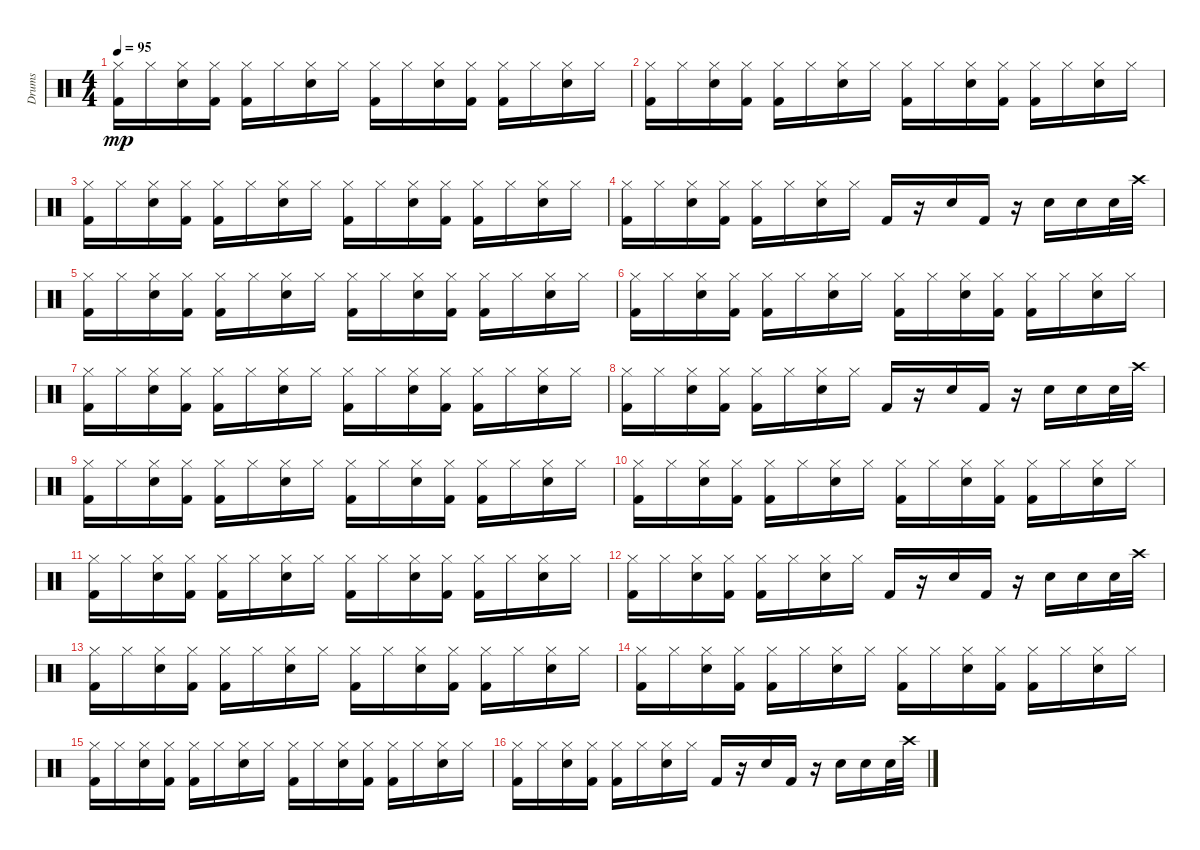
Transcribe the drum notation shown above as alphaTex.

\track ("Drums" "Drums") {instrument percussion}
\staff {score}
\articulation defaults
\ts (4 4)
\tempo 95
\clef neutral
\ks c
("Kick (hit) 2" "Hi-Hat (closed)").16{dy mp} "Hi-Hat (closed)".16 ("Snare (hit) 2" "Hi-Hat (closed)").16 ("Kick (hit) 2" "Hi-Hat (closed)").16 ("Kick (hit) 2" "Hi-Hat (closed)").16 "Hi-Hat (closed)".16 ("Snare (hit) 2" "Hi-Hat (closed)").16 "Hi-Hat (closed)".16 ("Kick (hit) 2" "Hi-Hat (closed)").16 "Hi-Hat (closed)".16 ("Snare (hit) 2" "Hi-Hat (closed)").16 ("Kick (hit) 2" "Hi-Hat (closed)").16 ("Kick (hit) 2" "Hi-Hat (closed)").16 "Hi-Hat (closed)".16 ("Snare (hit) 2" "Hi-Hat (closed)").16 "Hi-Hat (closed)".16 |
("Kick (hit) 2" "Hi-Hat (closed)").16 "Hi-Hat (closed)".16 ("Snare (hit) 2" "Hi-Hat (closed)").16 ("Kick (hit) 2" "Hi-Hat (closed)").16 ("Kick (hit) 2" "Hi-Hat (closed)").16 "Hi-Hat (closed)".16 ("Snare (hit) 2" "Hi-Hat (closed)").16 "Hi-Hat (closed)".16 ("Kick (hit) 2" "Hi-Hat (closed)").16 "Hi-Hat (closed)".16 ("Snare (hit) 2" "Hi-Hat (closed)").16 ("Kick (hit) 2" "Hi-Hat (closed)").16 ("Kick (hit) 2" "Hi-Hat (closed)").16 "Hi-Hat (closed)".16 ("Snare (hit) 2" "Hi-Hat (closed)").16 "Hi-Hat (closed)".16 |
("Kick (hit) 2" "Hi-Hat (closed)").16 "Hi-Hat (closed)".16 ("Snare (hit) 2" "Hi-Hat (closed)").16 ("Kick (hit) 2" "Hi-Hat (closed)").16 ("Kick (hit) 2" "Hi-Hat (closed)").16 "Hi-Hat (closed)".16 ("Snare (hit) 2" "Hi-Hat (closed)").16 "Hi-Hat (closed)".16 ("Kick (hit) 2" "Hi-Hat (closed)").16 "Hi-Hat (closed)".16 ("Snare (hit) 2" "Hi-Hat (closed)").16 ("Kick (hit) 2" "Hi-Hat (closed)").16 ("Kick (hit) 2" "Hi-Hat (closed)").16 "Hi-Hat (closed)".16 ("Snare (hit) 2" "Hi-Hat (closed)").16 "Hi-Hat (closed)".16 |
("Kick (hit) 2" "Hi-Hat (closed)").16 "Hi-Hat (closed)".16 ("Snare (hit) 2" "Hi-Hat (closed)").16 ("Kick (hit) 2" "Hi-Hat (closed)").16 ("Kick (hit) 2" "Hi-Hat (closed)").16 "Hi-Hat (closed)".16 ("Snare (hit) 2" "Hi-Hat (closed)").16 "Hi-Hat (closed)".16 "Kick (hit) 2".16 r.16 "Snare (hit) 2".16 "Kick (hit) 2".16 r.16 "Snare (hit) 2".16 "Snare (hit) 2".16 "Snare (hit) 2".32 "Crash high (hit)".32 |
("Kick (hit) 2" "Hi-Hat (closed)").16 "Hi-Hat (closed)".16 ("Snare (hit) 2" "Hi-Hat (closed)").16 ("Kick (hit) 2" "Hi-Hat (closed)").16 ("Kick (hit) 2" "Hi-Hat (closed)").16 "Hi-Hat (closed)".16 ("Snare (hit) 2" "Hi-Hat (closed)").16 "Hi-Hat (closed)".16 ("Kick (hit) 2" "Hi-Hat (closed)").16 "Hi-Hat (closed)".16 ("Snare (hit) 2" "Hi-Hat (closed)").16 ("Kick (hit) 2" "Hi-Hat (closed)").16 ("Kick (hit) 2" "Hi-Hat (closed)").16 "Hi-Hat (closed)".16 ("Snare (hit) 2" "Hi-Hat (closed)").16 "Hi-Hat (closed)".16 |
("Kick (hit) 2" "Hi-Hat (closed)").16 "Hi-Hat (closed)".16 ("Snare (hit) 2" "Hi-Hat (closed)").16 ("Kick (hit) 2" "Hi-Hat (closed)").16 ("Kick (hit) 2" "Hi-Hat (closed)").16 "Hi-Hat (closed)".16 ("Snare (hit) 2" "Hi-Hat (closed)").16 "Hi-Hat (closed)".16 ("Kick (hit) 2" "Hi-Hat (closed)").16 "Hi-Hat (closed)".16 ("Snare (hit) 2" "Hi-Hat (closed)").16 ("Kick (hit) 2" "Hi-Hat (closed)").16 ("Kick (hit) 2" "Hi-Hat (closed)").16 "Hi-Hat (closed)".16 ("Snare (hit) 2" "Hi-Hat (closed)").16 "Hi-Hat (closed)".16 |
("Kick (hit) 2" "Hi-Hat (closed)").16 "Hi-Hat (closed)".16 ("Snare (hit) 2" "Hi-Hat (closed)").16 ("Kick (hit) 2" "Hi-Hat (closed)").16 ("Kick (hit) 2" "Hi-Hat (closed)").16 "Hi-Hat (closed)".16 ("Snare (hit) 2" "Hi-Hat (closed)").16 "Hi-Hat (closed)".16 ("Kick (hit) 2" "Hi-Hat (closed)").16 "Hi-Hat (closed)".16 ("Snare (hit) 2" "Hi-Hat (closed)").16 ("Kick (hit) 2" "Hi-Hat (closed)").16 ("Kick (hit) 2" "Hi-Hat (closed)").16 "Hi-Hat (closed)".16 ("Snare (hit) 2" "Hi-Hat (closed)").16 "Hi-Hat (closed)".16 |
("Kick (hit) 2" "Hi-Hat (closed)").16 "Hi-Hat (closed)".16 ("Snare (hit) 2" "Hi-Hat (closed)").16 ("Kick (hit) 2" "Hi-Hat (closed)").16 ("Kick (hit) 2" "Hi-Hat (closed)").16 "Hi-Hat (closed)".16 ("Snare (hit) 2" "Hi-Hat (closed)").16 "Hi-Hat (closed)".16 "Kick (hit) 2".16 r.16 "Snare (hit) 2".16 "Kick (hit) 2".16 r.16 "Snare (hit) 2".16 "Snare (hit) 2".16 "Snare (hit) 2".32 "Crash high (hit)".32 |
("Kick (hit) 2" "Hi-Hat (closed)").16 "Hi-Hat (closed)".16 ("Snare (hit) 2" "Hi-Hat (closed)").16 ("Kick (hit) 2" "Hi-Hat (closed)").16 ("Kick (hit) 2" "Hi-Hat (closed)").16 "Hi-Hat (closed)".16 ("Snare (hit) 2" "Hi-Hat (closed)").16 "Hi-Hat (closed)".16 ("Kick (hit) 2" "Hi-Hat (closed)").16 "Hi-Hat (closed)".16 ("Snare (hit) 2" "Hi-Hat (closed)").16 ("Kick (hit) 2" "Hi-Hat (closed)").16 ("Kick (hit) 2" "Hi-Hat (closed)").16 "Hi-Hat (closed)".16 ("Snare (hit) 2" "Hi-Hat (closed)").16 "Hi-Hat (closed)".16 |
("Kick (hit) 2" "Hi-Hat (closed)").16 "Hi-Hat (closed)".16 ("Snare (hit) 2" "Hi-Hat (closed)").16 ("Kick (hit) 2" "Hi-Hat (closed)").16 ("Kick (hit) 2" "Hi-Hat (closed)").16 "Hi-Hat (closed)".16 ("Snare (hit) 2" "Hi-Hat (closed)").16 "Hi-Hat (closed)".16 ("Kick (hit) 2" "Hi-Hat (closed)").16 "Hi-Hat (closed)".16 ("Snare (hit) 2" "Hi-Hat (closed)").16 ("Kick (hit) 2" "Hi-Hat (closed)").16 ("Kick (hit) 2" "Hi-Hat (closed)").16 "Hi-Hat (closed)".16 ("Snare (hit) 2" "Hi-Hat (closed)").16 "Hi-Hat (closed)".16 |
("Kick (hit) 2" "Hi-Hat (closed)").16 "Hi-Hat (closed)".16 ("Snare (hit) 2" "Hi-Hat (closed)").16 ("Kick (hit) 2" "Hi-Hat (closed)").16 ("Kick (hit) 2" "Hi-Hat (closed)").16 "Hi-Hat (closed)".16 ("Snare (hit) 2" "Hi-Hat (closed)").16 "Hi-Hat (closed)".16 ("Kick (hit) 2" "Hi-Hat (closed)").16 "Hi-Hat (closed)".16 ("Snare (hit) 2" "Hi-Hat (closed)").16 ("Kick (hit) 2" "Hi-Hat (closed)").16 ("Kick (hit) 2" "Hi-Hat (closed)").16 "Hi-Hat (closed)".16 ("Snare (hit) 2" "Hi-Hat (closed)").16 "Hi-Hat (closed)".16 |
("Kick (hit) 2" "Hi-Hat (closed)").16 "Hi-Hat (closed)".16 ("Snare (hit) 2" "Hi-Hat (closed)").16 ("Kick (hit) 2" "Hi-Hat (closed)").16 ("Kick (hit) 2" "Hi-Hat (closed)").16 "Hi-Hat (closed)".16 ("Snare (hit) 2" "Hi-Hat (closed)").16 "Hi-Hat (closed)".16 "Kick (hit) 2".16 r.16 "Snare (hit) 2".16 "Kick (hit) 2".16 r.16 "Snare (hit) 2".16 "Snare (hit) 2".16 "Snare (hit) 2".32 "Crash high (hit)".32 |
("Kick (hit) 2" "Hi-Hat (closed)").16 "Hi-Hat (closed)".16 ("Snare (hit) 2" "Hi-Hat (closed)").16 ("Kick (hit) 2" "Hi-Hat (closed)").16 ("Kick (hit) 2" "Hi-Hat (closed)").16 "Hi-Hat (closed)".16 ("Snare (hit) 2" "Hi-Hat (closed)").16 "Hi-Hat (closed)".16 ("Kick (hit) 2" "Hi-Hat (closed)").16 "Hi-Hat (closed)".16 ("Snare (hit) 2" "Hi-Hat (closed)").16 ("Kick (hit) 2" "Hi-Hat (closed)").16 ("Kick (hit) 2" "Hi-Hat (closed)").16 "Hi-Hat (closed)".16 ("Snare (hit) 2" "Hi-Hat (closed)").16 "Hi-Hat (closed)".16 |
("Kick (hit) 2" "Hi-Hat (closed)").16 "Hi-Hat (closed)".16 ("Snare (hit) 2" "Hi-Hat (closed)").16 ("Kick (hit) 2" "Hi-Hat (closed)").16 ("Kick (hit) 2" "Hi-Hat (closed)").16 "Hi-Hat (closed)".16 ("Snare (hit) 2" "Hi-Hat (closed)").16 "Hi-Hat (closed)".16 ("Kick (hit) 2" "Hi-Hat (closed)").16 "Hi-Hat (closed)".16 ("Snare (hit) 2" "Hi-Hat (closed)").16 ("Kick (hit) 2" "Hi-Hat (closed)").16 ("Kick (hit) 2" "Hi-Hat (closed)").16 "Hi-Hat (closed)".16 ("Snare (hit) 2" "Hi-Hat (closed)").16 "Hi-Hat (closed)".16 |
("Kick (hit) 2" "Hi-Hat (closed)").16 "Hi-Hat (closed)".16 ("Snare (hit) 2" "Hi-Hat (closed)").16 ("Kick (hit) 2" "Hi-Hat (closed)").16 ("Kick (hit) 2" "Hi-Hat (closed)").16 "Hi-Hat (closed)".16 ("Snare (hit) 2" "Hi-Hat (closed)").16 "Hi-Hat (closed)".16 ("Kick (hit) 2" "Hi-Hat (closed)").16 "Hi-Hat (closed)".16 ("Snare (hit) 2" "Hi-Hat (closed)").16 ("Kick (hit) 2" "Hi-Hat (closed)").16 ("Kick (hit) 2" "Hi-Hat (closed)").16 "Hi-Hat (closed)".16 ("Snare (hit) 2" "Hi-Hat (closed)").16 "Hi-Hat (closed)".16 |
("Kick (hit) 2" "Hi-Hat (closed)").16 "Hi-Hat (closed)".16 ("Snare (hit) 2" "Hi-Hat (closed)").16 ("Kick (hit) 2" "Hi-Hat (closed)").16 ("Kick (hit) 2" "Hi-Hat (closed)").16 "Hi-Hat (closed)".16 ("Snare (hit) 2" "Hi-Hat (closed)").16 "Hi-Hat (closed)".16 "Kick (hit) 2".16 r.16 "Snare (hit) 2".16 "Kick (hit) 2".16 r.16 "Snare (hit) 2".16 "Snare (hit) 2".16 "Snare (hit) 2".32 "Crash high (hit)".32
